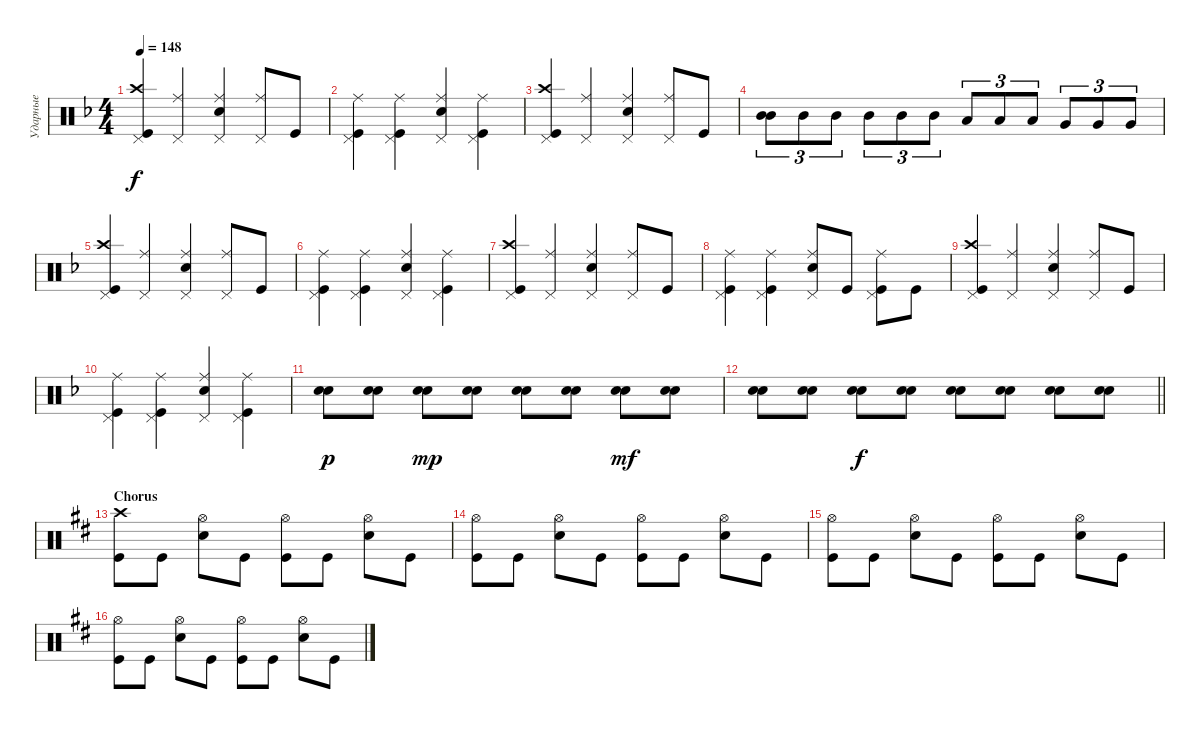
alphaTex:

\track ("Ударные" "Ударные") {instrument percussion}
\staff {score}
\articulation defaults
\ts (4 4)
\tempo 148
\clef neutral
\ks dminor
("Kick (hit)" "Crash high (hit)" "Pedal Hi-Hat (hit)").4{dy f} ("Pedal Hi-Hat (hit)" "Ride (middle)").4 ("Pedal Hi-Hat (hit)" "Snare (hit) 2" "Ride (middle)").4 ("Pedal Hi-Hat (hit)" "Ride (middle)").8 "Kick (hit)".8 |
("Kick (hit)" "Pedal Hi-Hat (hit)" "Ride (middle)").4 ("Kick (hit)" "Pedal Hi-Hat (hit)" "Ride (middle)").4 ("Snare (hit) 2" "Pedal Hi-Hat (hit)" "Ride (middle)").4 ("Kick (hit)" "Pedal Hi-Hat (hit)" "Ride (middle)").4 |
("Kick (hit)" "Crash high (hit)" "Pedal Hi-Hat (hit)").4 ("Pedal Hi-Hat (hit)" "Ride (middle)").4 ("Pedal Hi-Hat (hit)" "Snare (hit) 2" "Ride (middle)").4 ("Pedal Hi-Hat (hit)" "Ride (middle)").8 "Kick (hit)".8 |
("Mid Tom (hit)" "Mid Tom (hit)").8{tu (3 2) bd 240} "Mid Tom (hit)".8{tu (3 2)} "Mid Tom (hit)".8{tu (3 2)} "Mid Tom (hit)".8{tu (3 2)} "Mid Tom (hit)".8{tu (3 2)} "Mid Tom (hit)".8{tu (3 2)} "Low Tom (hit)".8{tu (3 2)} "Low Tom (hit)".8{tu (3 2)} "Low Tom (hit)".8{tu (3 2)} "Very Low Tom (hit)".8{tu (3 2)} "Very Low Tom (hit)".8{tu (3 2)} "Very Low Tom (hit)".8{tu (3 2)} |
("Kick (hit)" "Crash high (hit)" "Pedal Hi-Hat (hit)").4 ("Pedal Hi-Hat (hit)" "Ride (middle)").4 ("Pedal Hi-Hat (hit)" "Snare (hit) 2" "Ride (middle)").4 ("Pedal Hi-Hat (hit)" "Ride (middle)").8 "Kick (hit)".8 |
("Kick (hit)" "Pedal Hi-Hat (hit)" "Ride (middle)").4 ("Kick (hit)" "Pedal Hi-Hat (hit)" "Ride (middle)").4 ("Snare (hit) 2" "Pedal Hi-Hat (hit)" "Ride (middle)").4 ("Kick (hit)" "Pedal Hi-Hat (hit)" "Ride (middle)").4 |
("Kick (hit)" "Crash high (hit)" "Pedal Hi-Hat (hit)").4 ("Pedal Hi-Hat (hit)" "Ride (middle)").4 ("Pedal Hi-Hat (hit)" "Snare (hit) 2" "Ride (middle)").4 ("Pedal Hi-Hat (hit)" "Ride (middle)").8 "Kick (hit)".8 |
("Kick (hit)" "Pedal Hi-Hat (hit)" "Ride (middle)").4 ("Kick (hit)" "Pedal Hi-Hat (hit)" "Ride (middle)").4 ("Snare (hit) 2" "Pedal Hi-Hat (hit)" "Ride (middle)").8 "Kick (hit)".8 ("Pedal Hi-Hat (hit)" "Kick (hit)" "Ride (middle)").8 "Kick (hit)".8 |
("Kick (hit)" "Crash high (hit)" "Pedal Hi-Hat (hit)").4 ("Pedal Hi-Hat (hit)" "Ride (middle)").4 ("Pedal Hi-Hat (hit)" "Snare (hit) 2" "Ride (middle)").4 ("Pedal Hi-Hat (hit)" "Ride (middle)").8 "Kick (hit)".8 |
("Kick (hit)" "Pedal Hi-Hat (hit)" "Ride (middle)").4 ("Kick (hit)" "Pedal Hi-Hat (hit)" "Ride (middle)").4 ("Snare (hit) 2" "Pedal Hi-Hat (hit)" "Ride (middle)").4 ("Kick (hit)" "Pedal Hi-Hat (hit)" "Ride (middle)").4 |
("Snare (hit) 2" "Snare (hit) 2").8{bd 120 dy p} ("Snare (hit) 2" "Snare (hit) 2").8{bd 120} ("Snare (hit) 2" "Snare (hit) 2").8{bd 120 dy mp} ("Snare (hit) 2" "Snare (hit) 2").8{bd 120} ("Snare (hit) 2" "Snare (hit) 2").8{bd 120} ("Snare (hit) 2" "Snare (hit) 2").8{bd 120} ("Snare (hit) 2" "Snare (hit) 2").8{bd 120 dy mf} ("Snare (hit) 2" "Snare (hit) 2").8{bd 120} |
\barLineRight lightlight
("Snare (hit) 2" "Snare (hit) 2").8{bd 120} ("Snare (hit) 2" "Snare (hit) 2").8{bd 120} ("Snare (hit) 2" "Snare (hit) 2").8{bd 120 dy f} ("Snare (hit) 2" "Snare (hit) 2").8{bd 120} ("Snare (hit) 2" "Snare (hit) 2").8{bd 120} ("Snare (hit) 2" "Snare (hit) 2").8{bd 120} ("Snare (hit) 2" "Snare (hit) 2").8{bd 120} ("Snare (hit) 2" "Snare (hit) 2").8{bd 120} |
\section ("" "Chorus")
\ks bminor
("Crash high (hit)" "Kick (hit)").8 "Kick (hit)".8 ("Snare (hit) 2" "Hi-Hat (open)").8 "Kick (hit)".8 ("Kick (hit)" "Hi-Hat (open)").8 "Kick (hit)".8 ("Snare (hit) 2" "Hi-Hat (open)").8 "Kick (hit)".8 |
("Hi-Hat (open)" "Kick (hit)").8 "Kick (hit)".8 ("Snare (hit) 2" "Hi-Hat (open)").8 "Kick (hit)".8 ("Kick (hit)" "Hi-Hat (open)").8 "Kick (hit)".8 ("Snare (hit) 2" "Hi-Hat (open)").8 "Kick (hit)".8 |
("Hi-Hat (open)" "Kick (hit)").8 "Kick (hit)".8 ("Snare (hit) 2" "Hi-Hat (open)").8 "Kick (hit)".8 ("Kick (hit)" "Hi-Hat (open)").8 "Kick (hit)".8 ("Snare (hit) 2" "Hi-Hat (open)").8 "Kick (hit)".8 |
("Hi-Hat (open)" "Kick (hit)").8 "Kick (hit)".8 ("Snare (hit) 2" "Hi-Hat (open)").8 "Kick (hit)".8 ("Kick (hit)" "Hi-Hat (open)").8 "Kick (hit)".8 ("Snare (hit) 2" "Hi-Hat (open)").8 "Kick (hit)".8
